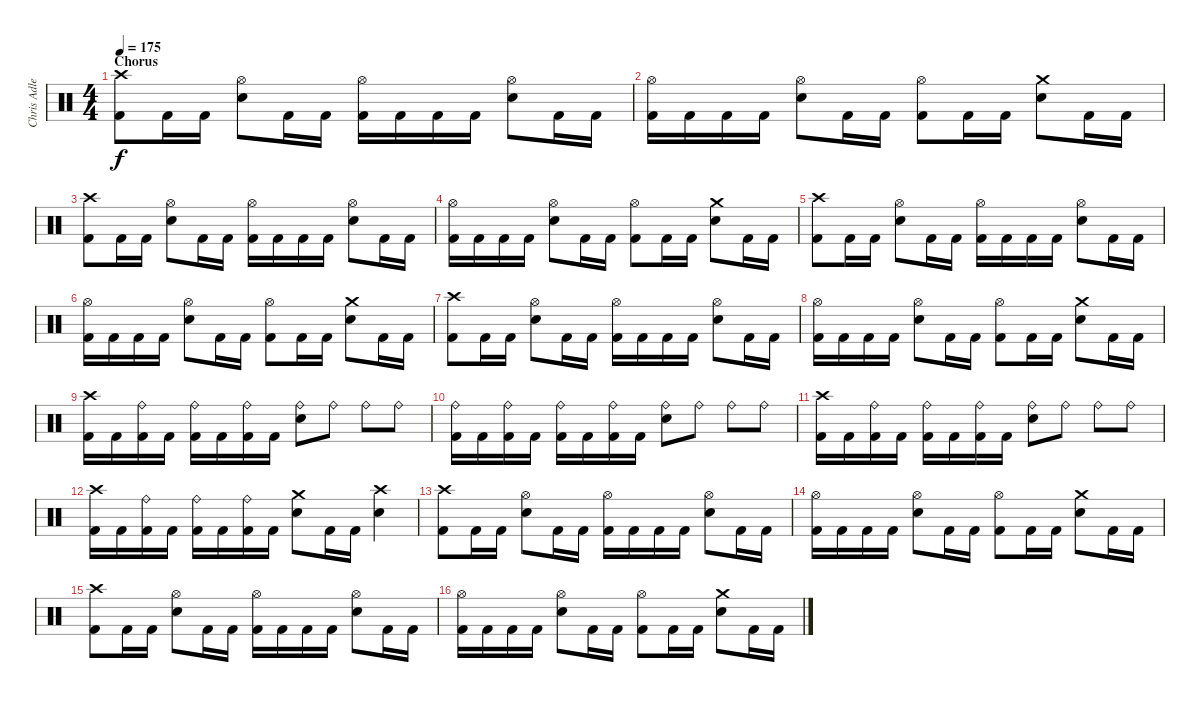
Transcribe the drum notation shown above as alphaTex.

\track ("Chris Adler" "Chris Adle") {instrument percussion}
\staff {score}
\articulation defaults
\ts (4 4)
\section ("" "Chorus")
\tempo 175
\clef neutral
\ks c
("Crash high (hit)" "Kick (hit) 2").8{dy f} "Kick (hit) 2".16 "Kick (hit) 2".16 ("Hi-Hat (open)" "Electric Snare (hit)").8 "Kick (hit) 2".16 "Kick (hit) 2".16 ("Hi-Hat (open)" "Kick (hit) 2").16 "Kick (hit) 2".16 "Kick (hit) 2".16 "Kick (hit) 2".16 ("Hi-Hat (open)" "Electric Snare (hit)").8 "Kick (hit) 2".16 "Kick (hit) 2".16 |
("Hi-Hat (open)" "Kick (hit) 2").16 "Kick (hit) 2".16 "Kick (hit) 2".16 "Kick (hit) 2".16 ("Hi-Hat (open)" "Electric Snare (hit)").8 "Kick (hit) 2".16 "Kick (hit) 2".16 ("Hi-Hat (open)" "Kick (hit) 2").8 "Kick (hit) 2".16 "Kick (hit) 2".16 ("Crash medium (hit)" "Electric Snare (hit)").8 "Kick (hit) 2".16 "Kick (hit) 2".16 |
("Crash high (hit)" "Kick (hit) 2").8 "Kick (hit) 2".16 "Kick (hit) 2".16 ("Hi-Hat (open)" "Electric Snare (hit)").8 "Kick (hit) 2".16 "Kick (hit) 2".16 ("Hi-Hat (open)" "Kick (hit) 2").16 "Kick (hit) 2".16 "Kick (hit) 2".16 "Kick (hit) 2".16 ("Hi-Hat (open)" "Electric Snare (hit)").8 "Kick (hit) 2".16 "Kick (hit) 2".16 |
("Hi-Hat (open)" "Kick (hit) 2").16 "Kick (hit) 2".16 "Kick (hit) 2".16 "Kick (hit) 2".16 ("Hi-Hat (open)" "Electric Snare (hit)").8 "Kick (hit) 2".16 "Kick (hit) 2".16 ("Hi-Hat (open)" "Kick (hit) 2").8 "Kick (hit) 2".16 "Kick (hit) 2".16 ("Crash medium (hit)" "Electric Snare (hit)").8 "Kick (hit) 2".16 "Kick (hit) 2".16 |
("Crash high (hit)" "Kick (hit) 2").8 "Kick (hit) 2".16 "Kick (hit) 2".16 ("Hi-Hat (open)" "Electric Snare (hit)").8 "Kick (hit) 2".16 "Kick (hit) 2".16 ("Hi-Hat (open)" "Kick (hit) 2").16 "Kick (hit) 2".16 "Kick (hit) 2".16 "Kick (hit) 2".16 ("Hi-Hat (open)" "Electric Snare (hit)").8 "Kick (hit) 2".16 "Kick (hit) 2".16 |
("Hi-Hat (open)" "Kick (hit) 2").16 "Kick (hit) 2".16 "Kick (hit) 2".16 "Kick (hit) 2".16 ("Hi-Hat (open)" "Electric Snare (hit)").8 "Kick (hit) 2".16 "Kick (hit) 2".16 ("Hi-Hat (open)" "Kick (hit) 2").8 "Kick (hit) 2".16 "Kick (hit) 2".16 ("Crash medium (hit)" "Electric Snare (hit)").8 "Kick (hit) 2".16 "Kick (hit) 2".16 |
("Crash high (hit)" "Kick (hit) 2").8 "Kick (hit) 2".16 "Kick (hit) 2".16 ("Hi-Hat (open)" "Electric Snare (hit)").8 "Kick (hit) 2".16 "Kick (hit) 2".16 ("Hi-Hat (open)" "Kick (hit) 2").16 "Kick (hit) 2".16 "Kick (hit) 2".16 "Kick (hit) 2".16 ("Hi-Hat (open)" "Electric Snare (hit)").8 "Kick (hit) 2".16 "Kick (hit) 2".16 |
("Hi-Hat (open)" "Kick (hit) 2").16 "Kick (hit) 2".16 "Kick (hit) 2".16 "Kick (hit) 2".16 ("Hi-Hat (open)" "Electric Snare (hit)").8 "Kick (hit) 2".16 "Kick (hit) 2".16 ("Hi-Hat (open)" "Kick (hit) 2").8 "Kick (hit) 2".16 "Kick (hit) 2".16 ("Crash medium (hit)" "Electric Snare (hit)").8 "Kick (hit) 2".16 "Kick (hit) 2".16 |
("Crash high (hit)" "Kick (hit) 2").16 "Kick (hit) 2".16 ("Ride (bell)" "Kick (hit) 2").16 "Kick (hit) 2".16 ("Ride (bell)" "Kick (hit) 2").16 "Kick (hit) 2".16 ("Ride (bell)" "Kick (hit) 2").16 "Kick (hit) 2".16 ("Ride (bell)" "Electric Snare (hit)").8 "Ride (bell)".8 "Ride (bell)".8 "Ride (bell)".8 |
("Ride (bell)" "Kick (hit) 2").16 "Kick (hit) 2".16 ("Ride (bell)" "Kick (hit) 2").16 "Kick (hit) 2".16 ("Ride (bell)" "Kick (hit) 2").16 "Kick (hit) 2".16 ("Ride (bell)" "Kick (hit) 2").16 "Kick (hit) 2".16 ("Ride (bell)" "Electric Snare (hit)").8 "Ride (bell)".8 "Ride (bell)".8 "Ride (bell)".8 |
("Crash high (hit)" "Kick (hit) 2").16 "Kick (hit) 2".16 ("Ride (bell)" "Kick (hit) 2").16 "Kick (hit) 2".16 ("Ride (bell)" "Kick (hit) 2").16 "Kick (hit) 2".16 ("Ride (bell)" "Kick (hit) 2").16 "Kick (hit) 2".16 ("Ride (bell)" "Electric Snare (hit)").8 "Ride (bell)".8 "Ride (bell)".8 "Ride (bell)".8 |
("Crash high (hit)" "Kick (hit) 2").16 "Kick (hit) 2".16 ("Ride (bell)" "Kick (hit) 2").16 "Kick (hit) 2".16 ("Ride (bell)" "Kick (hit) 2").16 "Kick (hit) 2".16 ("Ride (bell)" "Kick (hit) 2").16 "Kick (hit) 2".16 ("Crash medium (hit)" "Electric Snare (hit)").8 "Kick (hit) 2".16 "Kick (hit) 2".16 ("Crash high (hit)" "Electric Snare (hit)").4 |
("Crash high (hit)" "Kick (hit) 2").8 "Kick (hit) 2".16 "Kick (hit) 2".16 ("Hi-Hat (open)" "Electric Snare (hit)").8 "Kick (hit) 2".16 "Kick (hit) 2".16 ("Hi-Hat (open)" "Kick (hit) 2").16 "Kick (hit) 2".16 "Kick (hit) 2".16 "Kick (hit) 2".16 ("Hi-Hat (open)" "Electric Snare (hit)").8 "Kick (hit) 2".16 "Kick (hit) 2".16 |
("Hi-Hat (open)" "Kick (hit) 2").16 "Kick (hit) 2".16 "Kick (hit) 2".16 "Kick (hit) 2".16 ("Hi-Hat (open)" "Electric Snare (hit)").8 "Kick (hit) 2".16 "Kick (hit) 2".16 ("Hi-Hat (open)" "Kick (hit) 2").8 "Kick (hit) 2".16 "Kick (hit) 2".16 ("Crash medium (hit)" "Electric Snare (hit)").8 "Kick (hit) 2".16 "Kick (hit) 2".16 |
("Crash high (hit)" "Kick (hit) 2").8 "Kick (hit) 2".16 "Kick (hit) 2".16 ("Hi-Hat (open)" "Electric Snare (hit)").8 "Kick (hit) 2".16 "Kick (hit) 2".16 ("Hi-Hat (open)" "Kick (hit) 2").16 "Kick (hit) 2".16 "Kick (hit) 2".16 "Kick (hit) 2".16 ("Hi-Hat (open)" "Electric Snare (hit)").8 "Kick (hit) 2".16 "Kick (hit) 2".16 |
("Hi-Hat (open)" "Kick (hit) 2").16 "Kick (hit) 2".16 "Kick (hit) 2".16 "Kick (hit) 2".16 ("Hi-Hat (open)" "Electric Snare (hit)").8 "Kick (hit) 2".16 "Kick (hit) 2".16 ("Hi-Hat (open)" "Kick (hit) 2").8 "Kick (hit) 2".16 "Kick (hit) 2".16 ("Crash medium (hit)" "Electric Snare (hit)").8 "Kick (hit) 2".16 "Kick (hit) 2".16
